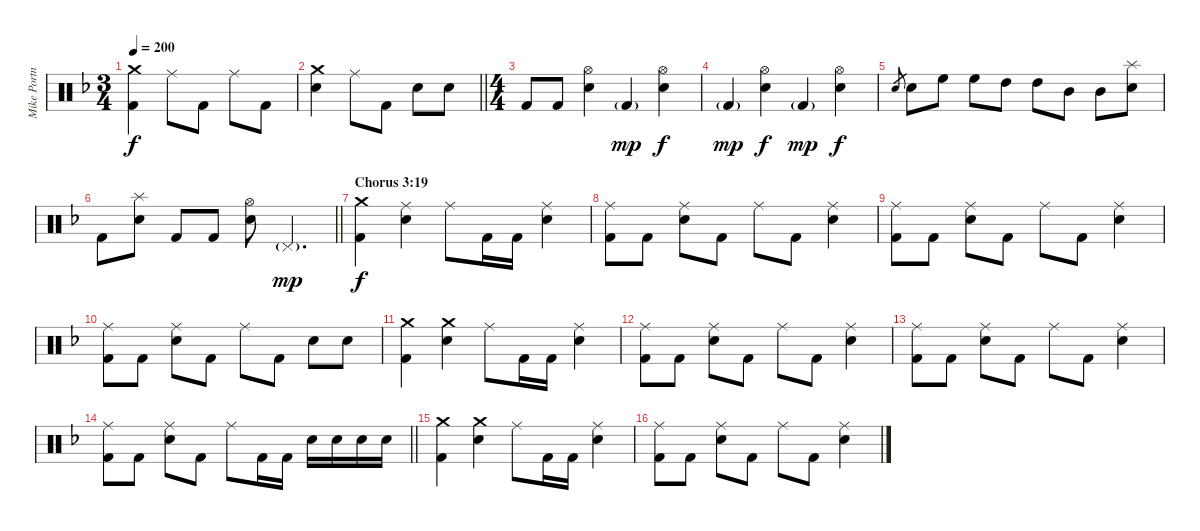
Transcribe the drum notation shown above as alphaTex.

\track ("Mike Portnoy (Drums)" "Mike Portn") {instrument percussion}
\staff {score}
\articulation defaults
\ts (3 4)
\tempo 200
\clef neutral
\ks f
("Crash medium (hit)" "Kick (hit) 2").4{dy f} "Ride (middle)".8 "Kick (hit) 2".8 "Ride (middle)".8 "Kick (hit) 2".8 |
\barLineRight lightlight
("Crash medium (hit)" "Electric Snare (hit)").4 "Ride (middle)".8 "Kick (hit) 2".8 "Electric Snare (hit)".8 "Electric Snare (hit)".8 |
\ts (4 4)
\section ("" "")
"Kick (hit) 2".8 "Kick (hit) 2".8 ("Hi-Hat (open)" "Electric Snare (hit)").4 "Kick (hit) 2"{g}.4{dy mp} ("Hi-Hat (open)" "Electric Snare (hit)").4{dy f} |
"Kick (hit) 2"{g}.4{dy mp} ("Hi-Hat (open)" "Electric Snare (hit)").4{dy f} "Kick (hit) 2"{g}.4{dy mp} ("Hi-Hat (open)" "Electric Snare (hit)").4{dy f} |
"Electric Snare (hit)".8{gr} "Electric Snare (hit)".8 "High Floor Tom (hit)".8 "High Floor Tom (hit)".8 "High Tom (hit)".8 "High Tom (hit)".8 "Mid Tom (hit)".8 "Mid Tom (hit)".8 ("Splash (hit)" "Electric Snare (hit)").8 |
\barLineRight lightlight "Kick (hit) 2".8
("Splash (hit)" "Electric Snare (hit)").8 "Kick (hit) 2".8 "Kick (hit) 2".8 ("Hi-Hat (open)" "Electric Snare (hit)").8 "Pedal Hi-Hat (hit)"{g}.4{d dy mp} |
\section ("" "Chorus 3:19")
("Crash medium (hit)" "Kick (hit) 2").4{dy f} ("Ride (middle)" "Electric Snare (hit)").4 "Ride (middle)".8 "Kick (hit) 2".16 "Kick (hit) 2".16 ("Ride (middle)" "Electric Snare (hit)").4 |
("Ride (middle)" "Kick (hit) 2").8 "Kick (hit) 2".8 ("Ride (middle)" "Electric Snare (hit)").8 "Kick (hit) 2".8 "Ride (middle)".8 "Kick (hit) 2".8 ("Ride (middle)" "Electric Snare (hit)").4 |
("Ride (middle)" "Kick (hit) 2").8 "Kick (hit) 2".8 ("Ride (middle)" "Electric Snare (hit)").8 "Kick (hit) 2".8 "Ride (middle)".8 "Kick (hit) 2".8 ("Ride (middle)" "Electric Snare (hit)").4 |
("Ride (middle)" "Kick (hit) 2").8 "Kick (hit) 2".8 ("Ride (middle)" "Electric Snare (hit)").8 "Kick (hit) 2".8 "Ride (middle)".8 "Kick (hit) 2".8 "Electric Snare (hit)".8 "Electric Snare (hit)".8 |
("Crash medium (hit)" "Kick (hit) 2").4 ("Crash medium (hit)" "Electric Snare (hit)").4 "Ride (middle)".8 "Kick (hit) 2".16 "Kick (hit) 2".16 ("Ride (middle)" "Electric Snare (hit)").4 |
("Ride (middle)" "Kick (hit) 2").8 "Kick (hit) 2".8 ("Ride (middle)" "Electric Snare (hit)").8 "Kick (hit) 2".8 "Ride (middle)".8 "Kick (hit) 2".8 ("Ride (middle)" "Electric Snare (hit)").4 |
("Ride (middle)" "Kick (hit) 2").8 "Kick (hit) 2".8 ("Ride (middle)" "Electric Snare (hit)").8 "Kick (hit) 2".8 "Ride (middle)".8 "Kick (hit) 2".8 ("Ride (middle)" "Electric Snare (hit)").4 |
\barLineRight lightlight
("Ride (middle)" "Kick (hit) 2").8 "Kick (hit) 2".8 ("Ride (middle)" "Electric Snare (hit)").8 "Kick (hit) 2".8 "Ride (middle)".8 "Kick (hit) 2".16 "Kick (hit) 2".16 "Electric Snare (hit)".16 "Electric Snare (hit)".16 "Electric Snare (hit)".16 "Electric Snare (hit)".16 |
\section ("" "")
("Crash medium (hit)" "Kick (hit) 2").4 ("Crash medium (hit)" "Electric Snare (hit)").4 "Ride (middle)".8 "Kick (hit) 2".16 "Kick (hit) 2".16 ("Ride (middle)" "Electric Snare (hit)").4 |
("Ride (middle)" "Kick (hit) 2").8 "Kick (hit) 2".8 ("Ride (middle)" "Electric Snare (hit)").8 "Kick (hit) 2".8 "Ride (middle)".8 "Kick (hit) 2".8 ("Ride (middle)" "Electric Snare (hit)").4
